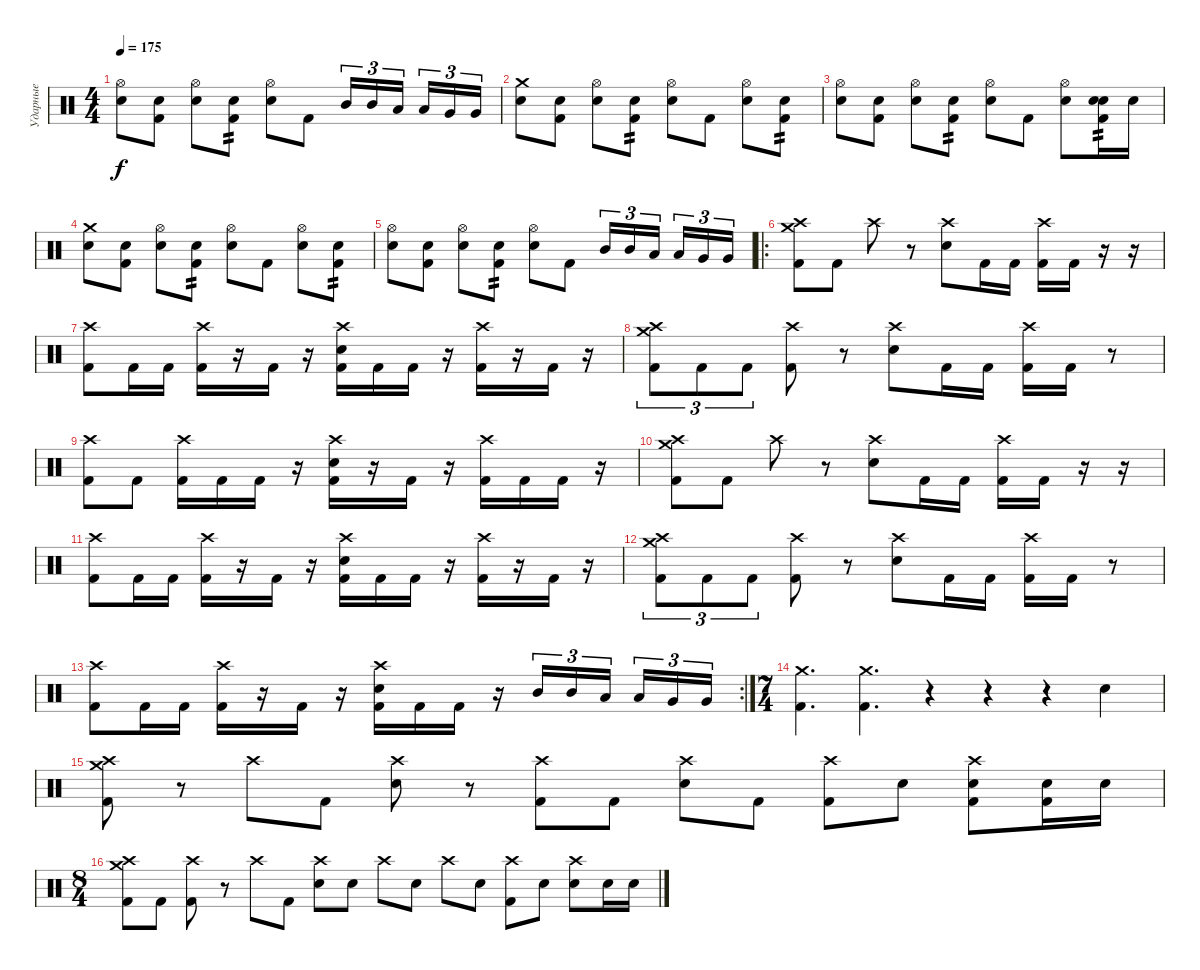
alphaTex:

\track ("Ударные" "Ударные") {instrument percussion}
\staff {score}
\articulation defaults
\ts (4 4)
\tempo 175
\clef neutral
\ks c
("Hi-Hat (open)" "Snare (hit) 2").8{dy f} ("Snare (hit)" "Kick (hit) 2").8 ("Hi-Hat (open)" "Snare (hit) 2").8 ("Snare (hit)" "Kick (hit) 2").8{tp 2} ("Hi-Hat (open)" "Snare (hit) 2").8 "Kick (hit) 2".8 "Mid Tom (hit)".16{tu (3 2)} "Mid Tom (hit)".16{tu (3 2)} "Low Tom (hit)".16{tu (3 2) beam splitsecondary} "Low Tom (hit)".16{tu (3 2)} "Very Low Tom (hit)".16{tu (3 2)} "Very Low Tom (hit)".16{tu (3 2)} |
("Crash medium (hit)" "Snare (hit) 2").8 ("Snare (hit)" "Kick (hit) 2").8 ("Hi-Hat (open)" "Snare (hit) 2").8 ("Snare (hit)" "Kick (hit) 2").8{tp 2} ("Hi-Hat (open)" "Snare (hit) 2").8 "Kick (hit) 2".8 ("Hi-Hat (open)" "Snare (hit) 2").8 ("Snare (hit)" "Kick (hit) 2").8{tp 2} |
("Hi-Hat (open)" "Snare (hit) 2").8 ("Snare (hit)" "Kick (hit) 2").8 ("Hi-Hat (open)" "Snare (hit) 2").8 ("Snare (hit)" "Kick (hit) 2").8{tp 2} ("Hi-Hat (open)" "Snare (hit) 2").8 "Kick (hit) 2".8 ("Hi-Hat (open)" "Snare (hit) 2").8 ("Snare (hit)" "Snare (hit) 2" "Kick (hit) 2").16{tp 2} "Snare (hit) 2".16 |
("Crash medium (hit)" "Snare (hit) 2").8 ("Snare (hit)" "Kick (hit) 2").8 ("Hi-Hat (open)" "Snare (hit) 2").8 ("Snare (hit)" "Kick (hit) 2").8{tp 2} ("Hi-Hat (open)" "Snare (hit) 2").8 "Kick (hit) 2".8 ("Hi-Hat (open)" "Snare (hit) 2").8 ("Snare (hit)" "Kick (hit) 2").8{tp 2} |
("Hi-Hat (open)" "Snare (hit) 2").8 ("Snare (hit)" "Kick (hit) 2").8 ("Hi-Hat (open)" "Snare (hit) 2").8 ("Snare (hit)" "Kick (hit) 2").8{tp 2} ("Hi-Hat (open)" "Snare (hit) 2").8 "Kick (hit) 2".8 "Mid Tom (hit)".16{tu (3 2)} "Mid Tom (hit)".16{tu (3 2)} "Low Tom (hit)".16{tu (3 2) beam splitsecondary} "Low Tom (hit)".16{tu (3 2)} "Very Low Tom (hit)".16{tu (3 2)} "Very Low Tom (hit)".16{tu (3 2)} |
\ro
("Crash high (hit)" "Crash medium (hit)" "Kick (hit) 2").8 "Kick (hit) 2".8 "Crash high (hit)".8 r.8 ("Crash high (hit)" "Snare (hit) 2").8 "Kick (hit) 2".16 "Kick (hit) 2".16 ("Crash high (hit)" "Kick (hit) 2").16 "Kick (hit) 2".16 r.16 r.16 |
("Crash high (hit)" "Kick (hit) 2").8 "Kick (hit) 2".16 "Kick (hit) 2".16 ("Crash high (hit)" "Kick (hit) 2").16 r.16 "Kick (hit) 2".16 r.16 ("Crash high (hit)" "Snare (hit) 2" "Kick (hit) 2").16 "Kick (hit) 2".16 "Kick (hit) 2".16 r.16 ("Crash high (hit)" "Kick (hit) 2").16 r.16 "Kick (hit) 2".16 r.16 |
("Crash medium (hit)" "Crash high (hit)" "Kick (hit) 2").8{tu (3 2)} "Kick (hit) 2".8{tu (3 2)} "Kick (hit) 2".8{tu (3 2)} ("Crash high (hit)" "Kick (hit) 2").8 r.8 ("Crash high (hit)" "Snare (hit) 2").8 "Kick (hit) 2".16 "Kick (hit) 2".16 ("Crash high (hit)" "Kick (hit) 2").16 "Kick (hit) 2".16 r.8 |
("Crash high (hit)" "Kick (hit) 2").8 "Kick (hit) 2".8 ("Crash high (hit)" "Kick (hit) 2").16 "Kick (hit) 2".16 "Kick (hit) 2".16 r.16 ("Crash high (hit)" "Snare (hit) 2" "Kick (hit) 2").16 r.16 "Kick (hit) 2".16 r.16 ("Crash high (hit)" "Kick (hit) 2").16 "Kick (hit) 2".16 "Kick (hit) 2".16 r.16 |
("Crash high (hit)" "Crash medium (hit)" "Kick (hit) 2").8 "Kick (hit) 2".8 "Crash high (hit)".8 r.8 ("Crash high (hit)" "Snare (hit) 2").8 "Kick (hit) 2".16 "Kick (hit) 2".16 ("Crash high (hit)" "Kick (hit) 2").16 "Kick (hit) 2".16 r.16 r.16 |
("Crash high (hit)" "Kick (hit) 2").8 "Kick (hit) 2".16 "Kick (hit) 2".16 ("Crash high (hit)" "Kick (hit) 2").16 r.16 "Kick (hit) 2".16 r.16 ("Crash high (hit)" "Snare (hit) 2" "Kick (hit) 2").16 "Kick (hit) 2".16 "Kick (hit) 2".16 r.16 ("Crash high (hit)" "Kick (hit) 2").16 r.16 "Kick (hit) 2".16 r.16 |
("Crash medium (hit)" "Crash high (hit)" "Kick (hit) 2").8{tu (3 2)} "Kick (hit) 2".8{tu (3 2)} "Kick (hit) 2".8{tu (3 2)} ("Crash high (hit)" "Kick (hit) 2").8 r.8 ("Crash high (hit)" "Snare (hit) 2").8 "Kick (hit) 2".16 "Kick (hit) 2".16 ("Crash high (hit)" "Kick (hit) 2").16 "Kick (hit) 2".16 r.8 |
\rc 2
("Crash high (hit)" "Kick (hit) 2").8 "Kick (hit) 2".16 "Kick (hit) 2".16 ("Crash high (hit)" "Kick (hit) 2").16 r.16 "Kick (hit) 2".16 r.16 ("Crash high (hit)" "Snare (hit) 2" "Kick (hit) 2").16 "Kick (hit) 2".16 "Kick (hit) 2".16 r.16 "Mid Tom (hit)".16{tu (3 2)} "Mid Tom (hit)".16{tu (3 2)} "Low Tom (hit)".16{tu (3 2) beam splitsecondary} "Low Tom (hit)".16{tu (3 2)} "Very Low Tom (hit)".16{tu (3 2)} "Very Low Tom (hit)".16{tu (3 2)} |
\ts (7 4)
("Crash medium (hit)" "Kick (hit) 2").4{d} ("Crash medium (hit)" "Kick (hit) 2").4{d} r.4 r.4 r.4 "Electric Snare (hit)".4 |
("Crash high (hit)" "Crash medium (hit)" "Kick (hit) 2").8 r.8 "Crash high (hit)".8 "Kick (hit) 2".8 ("Crash high (hit)" "Snare (hit) 2").8 r.8 ("Crash high (hit)" "Kick (hit) 2").8 "Kick (hit) 2".8 ("Crash high (hit)" "Snare (hit)").8 "Kick (hit) 2".8 ("Crash high (hit)" "Kick (hit) 2").8 "Snare (hit)".8 ("Crash high (hit)" "Snare (hit) 2" "Kick (hit) 2").8 ("Snare (hit) 2" "Kick (hit) 2").16 "Snare (hit) 2".16 |
\ts (8 4)
("Crash medium (hit)" "Crash high (hit)" "Kick (hit) 2").8 "Kick (hit) 2".8 ("Crash high (hit)" "Kick (hit) 2").8 r.8 "Crash high (hit)".8 "Kick (hit) 2".8 ("Crash high (hit)" "Snare (hit) 2").8 "Snare (hit)".8 "Crash high (hit)".8 "Snare (hit)".8 "Crash high (hit)".8 "Snare (hit)".8 ("Crash high (hit)" "Kick (hit) 2").8 "Snare (hit)".8 ("Crash high (hit)" "Snare (hit) 2").8 "Electric Snare (hit)".16 "Electric Snare (hit)".16
